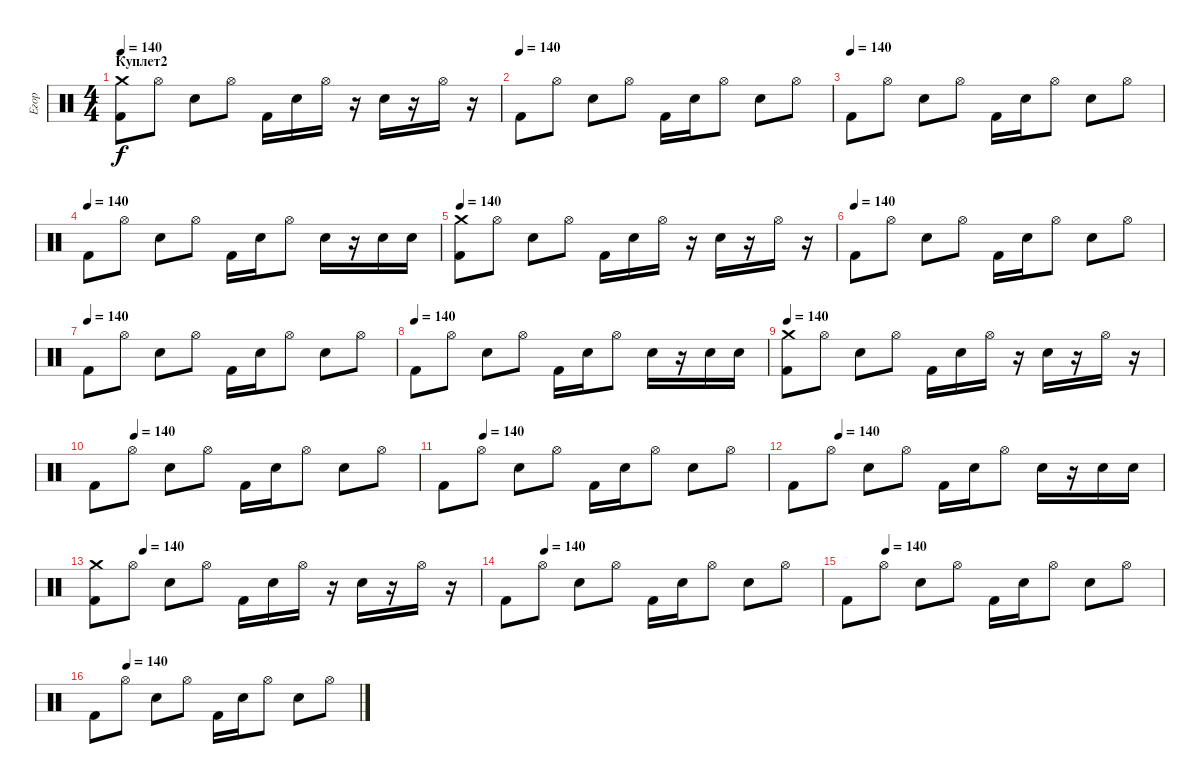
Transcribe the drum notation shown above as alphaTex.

\track ("Егор" "Егор") {instrument percussion}
\staff {score}
\articulation defaults
\ts (4 4)
\section ("" "Куплет2")
\tempo 140
\clef neutral
\ks c
("Crash medium (hit)" "Kick (hit) 2").8{dy f} "Hi-Hat (open)".8 "Snare (hit) 2".8 "Hi-Hat (open)".8 "Kick (hit) 2".16 "Snare (hit) 2".16 "Hi-Hat (open)".16 r.16 "Snare (hit) 2".16 r.16 "Hi-Hat (open)".16 r.16 |
\tempo (140)
"Kick (hit) 2".8 "Hi-Hat (open)".8 "Snare (hit) 2".8 "Hi-Hat (open)".8 "Kick (hit) 2".16 "Snare (hit) 2".16 "Hi-Hat (open)".8 "Snare (hit) 2".8 "Hi-Hat (open)".8 |
\tempo (140)
"Kick (hit) 2".8 "Hi-Hat (open)".8 "Snare (hit) 2".8 "Hi-Hat (open)".8 "Kick (hit) 2".16 "Snare (hit) 2".16 "Hi-Hat (open)".8 "Snare (hit) 2".8 "Hi-Hat (open)".8 |
\tempo (140)
"Kick (hit) 2".8 "Hi-Hat (open)".8 "Snare (hit) 2".8 "Hi-Hat (open)".8 "Kick (hit) 2".16 "Snare (hit) 2".16 "Hi-Hat (open)".8 "Snare (hit) 2".16 r.16 "Snare (hit) 2".16 "Snare (hit) 2".16 |
\tempo 140
("Crash medium (hit)" "Kick (hit) 2").8 "Hi-Hat (open)".8 "Snare (hit) 2".8 "Hi-Hat (open)".8 "Kick (hit) 2".16 "Snare (hit) 2".16 "Hi-Hat (open)".16 r.16 "Snare (hit) 2".16 r.16 "Hi-Hat (open)".16 r.16 |
\tempo (140)
"Kick (hit) 2".8 "Hi-Hat (open)".8 "Snare (hit) 2".8 "Hi-Hat (open)".8 "Kick (hit) 2".16 "Snare (hit) 2".16 "Hi-Hat (open)".8 "Snare (hit) 2".8 "Hi-Hat (open)".8 |
\tempo (140)
"Kick (hit) 2".8 "Hi-Hat (open)".8 "Snare (hit) 2".8 "Hi-Hat (open)".8 "Kick (hit) 2".16 "Snare (hit) 2".16 "Hi-Hat (open)".8 "Snare (hit) 2".8 "Hi-Hat (open)".8 |
\tempo (140)
"Kick (hit) 2".8 "Hi-Hat (open)".8 "Snare (hit) 2".8 "Hi-Hat (open)".8 "Kick (hit) 2".16 "Snare (hit) 2".16 "Hi-Hat (open)".8 "Snare (hit) 2".16 r.16 "Snare (hit) 2".16 "Snare (hit) 2".16 |
\tempo 140
("Crash medium (hit)" "Kick (hit) 2").8 "Hi-Hat (open)".8 "Snare (hit) 2".8 "Hi-Hat (open)".8 "Kick (hit) 2".16 "Snare (hit) 2".16 "Hi-Hat (open)".16 r.16 "Snare (hit) 2".16 r.16 "Hi-Hat (open)".16 r.16 |
\tempo (140 0.125)
"Kick (hit) 2".8 "Hi-Hat (open)".8 "Snare (hit) 2".8 "Hi-Hat (open)".8 "Kick (hit) 2".16 "Snare (hit) 2".16 "Hi-Hat (open)".8 "Snare (hit) 2".8 "Hi-Hat (open)".8 |
\tempo (140 0.125)
"Kick (hit) 2".8 "Hi-Hat (open)".8 "Snare (hit) 2".8 "Hi-Hat (open)".8 "Kick (hit) 2".16 "Snare (hit) 2".16 "Hi-Hat (open)".8 "Snare (hit) 2".8 "Hi-Hat (open)".8 |
\tempo (140 0.125)
"Kick (hit) 2".8 "Hi-Hat (open)".8 "Snare (hit) 2".8 "Hi-Hat (open)".8 "Kick (hit) 2".16 "Snare (hit) 2".16 "Hi-Hat (open)".8 "Snare (hit) 2".16 r.16 "Snare (hit) 2".16 "Snare (hit) 2".16 |
\tempo (140 0.125)
("Crash medium (hit)" "Kick (hit) 2").8 "Hi-Hat (open)".8 "Snare (hit) 2".8 "Hi-Hat (open)".8 "Kick (hit) 2".16 "Snare (hit) 2".16 "Hi-Hat (open)".16 r.16 "Snare (hit) 2".16 r.16 "Hi-Hat (open)".16 r.16 |
\tempo (140 0.125)
"Kick (hit) 2".8 "Hi-Hat (open)".8 "Snare (hit) 2".8 "Hi-Hat (open)".8 "Kick (hit) 2".16 "Snare (hit) 2".16 "Hi-Hat (open)".8 "Snare (hit) 2".8 "Hi-Hat (open)".8 |
\tempo (140 0.125)
"Kick (hit) 2".8 "Hi-Hat (open)".8 "Snare (hit) 2".8 "Hi-Hat (open)".8 "Kick (hit) 2".16 "Snare (hit) 2".16 "Hi-Hat (open)".8 "Snare (hit) 2".8 "Hi-Hat (open)".8 |
\tempo (140 0.125)
"Kick (hit) 2".8 "Hi-Hat (open)".8 "Snare (hit) 2".8 "Hi-Hat (open)".8 "Kick (hit) 2".16 "Snare (hit) 2".16 "Hi-Hat (open)".8 "Snare (hit) 2".8 "Hi-Hat (open)".8
